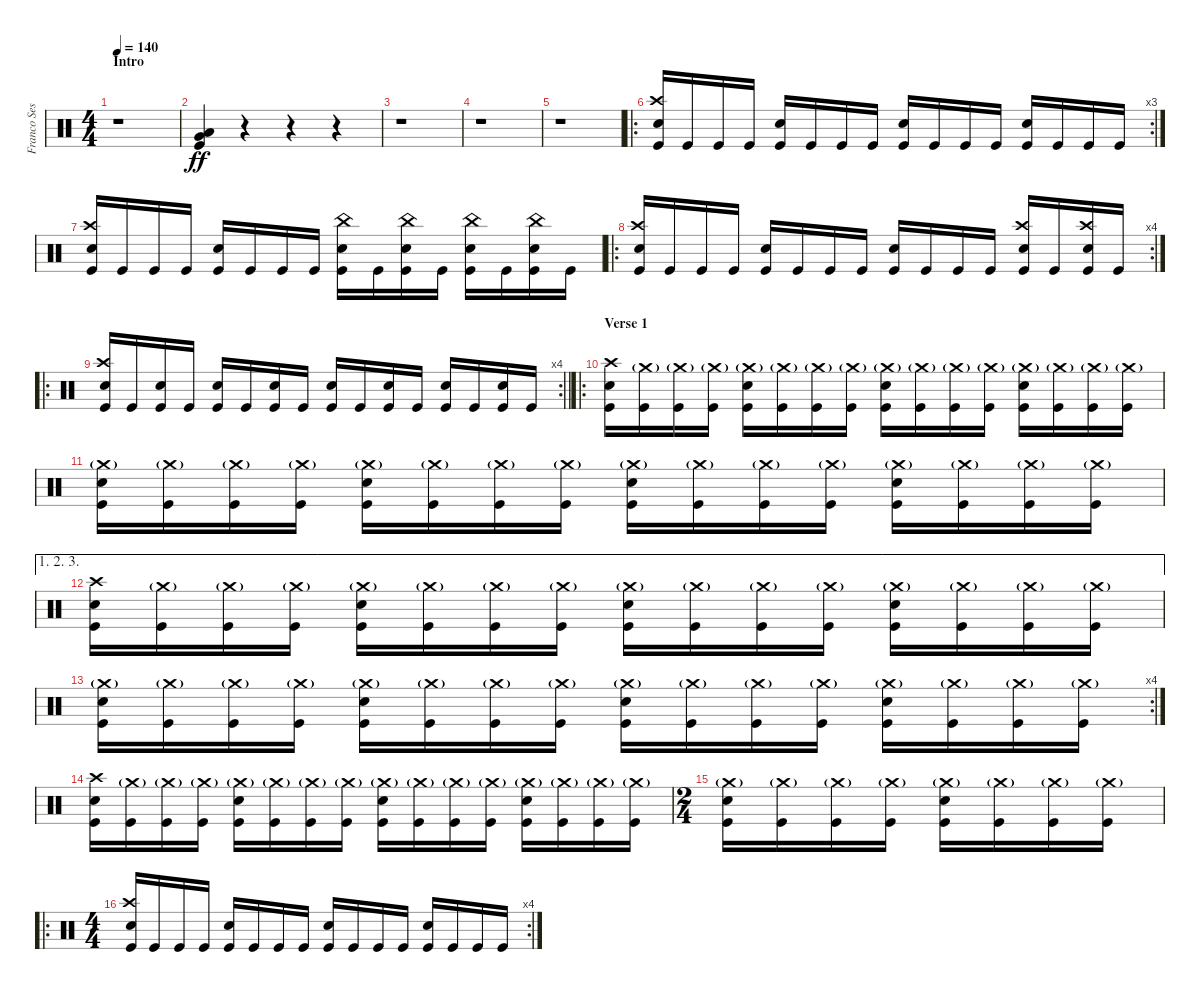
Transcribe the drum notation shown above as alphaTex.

\track ("Franco Sesa" "Franco Ses") {instrument percussion}
\staff {score}
\articulation defaults
\ts (4 4)
\section ("" "Intro")
\tempo 140
\clef neutral
\ks c
r.1{dy ff} |
("Very Low Tom (hit)" "Low Floor Tom (hit)" "Kick (hit)").4 r.4 r.4 r.4 |
r.1 |
r.1 |
r.1 |
\ro
\rc 3
("Crash high (hit)" "Electric Snare (hit)" "Kick (hit)").16 "Kick (hit)".16 "Kick (hit)".16 "Kick (hit)".16 ("Electric Snare (hit)" "Kick (hit)").16 "Kick (hit)".16 "Kick (hit)".16 "Kick (hit)".16 ("Electric Snare (hit)" "Kick (hit)").16 "Kick (hit)".16 "Kick (hit)".16 "Kick (hit)".16 ("Electric Snare (hit)" "Kick (hit)").16 "Kick (hit)".16 "Kick (hit)".16 "Kick (hit)".16 |
("Crash high (hit)" "Electric Snare (hit)" "Kick (hit)").16 "Kick (hit)".16 "Kick (hit)".16 "Kick (hit)".16 ("Electric Snare (hit)" "Kick (hit)").16 "Kick (hit)".16 "Kick (hit)".16 "Kick (hit)".16 ("China (hit)" "Electric Snare (hit)" "Kick (hit)").16 "Kick (hit)".16 ("China (hit)" "Electric Snare (hit)" "Kick (hit)").16 "Kick (hit)".16 ("China (hit)" "Electric Snare (hit)" "Kick (hit)").16 "Kick (hit)".16 ("China (hit)" "Electric Snare (hit)" "Kick (hit)").16 "Kick (hit)".16 |
\ro
\rc 4
("Crash high (hit)" "Electric Snare (hit)" "Kick (hit)").16 "Kick (hit)".16 "Kick (hit)".16 "Kick (hit)".16 ("Electric Snare (hit)" "Kick (hit)").16 "Kick (hit)".16 "Kick (hit)".16 "Kick (hit)".16 ("Electric Snare (hit)" "Kick (hit)").16 "Kick (hit)".16 "Kick (hit)".16 "Kick (hit)".16 ("Crash high (hit)" "Electric Snare (hit)" "Kick (hit)").16 "Kick (hit)".16 ("Crash high (hit)" "Electric Snare (hit)" "Kick (hit)").16 "Kick (hit)".16 |
\ro
\rc 4
\barLineRight lightlight
("Crash high (hit)" "Electric Snare (hit)" "Kick (hit)").16 "Kick (hit)".16 ("Electric Snare (hit)" "Kick (hit)").16 "Kick (hit)".16 ("Electric Snare (hit)" "Kick (hit)").16 "Kick (hit)".16 ("Electric Snare (hit)" "Kick (hit)").16 "Kick (hit)".16 ("Electric Snare (hit)" "Kick (hit)").16 "Kick (hit)".16 ("Electric Snare (hit)" "Kick (hit)").16 "Kick (hit)".16 ("Electric Snare (hit)" "Kick (hit)").16 "Kick (hit)".16 ("Electric Snare (hit)" "Kick (hit)").16 "Kick (hit)".16 |
\ro
\section ("" "Verse 1")
("Crash high (hit)" "Electric Snare (hit)" "Kick (hit)").16 ("Crash medium (hit)"{g} "Kick (hit)").16 ("Crash medium (hit)"{g} "Kick (hit)").16 ("Crash medium (hit)"{g} "Kick (hit)").16 ("Crash medium (hit)"{g} "Electric Snare (hit)" "Kick (hit)").16 ("Crash medium (hit)"{g} "Kick (hit)").16 ("Crash medium (hit)"{g} "Kick (hit)").16 ("Crash medium (hit)"{g} "Kick (hit)").16 ("Crash medium (hit)"{g} "Electric Snare (hit)" "Kick (hit)").16 ("Crash medium (hit)"{g} "Kick (hit)").16 ("Crash medium (hit)"{g} "Kick (hit)").16 ("Crash medium (hit)"{g} "Kick (hit)").16 ("Crash medium (hit)"{g} "Electric Snare (hit)" "Kick (hit)").16 ("Crash medium (hit)"{g} "Kick (hit)").16 ("Crash medium (hit)"{g} "Kick (hit)").16 ("Crash medium (hit)"{g} "Kick (hit)").16 |
("Crash medium (hit)"{g} "Electric Snare (hit)" "Kick (hit)").16 ("Crash medium (hit)"{g} "Kick (hit)").16 ("Crash medium (hit)"{g} "Kick (hit)").16 ("Crash medium (hit)"{g} "Kick (hit)").16 ("Crash medium (hit)"{g} "Electric Snare (hit)" "Kick (hit)").16 ("Crash medium (hit)"{g} "Kick (hit)").16 ("Crash medium (hit)"{g} "Kick (hit)").16 ("Crash medium (hit)"{g} "Kick (hit)").16 ("Crash medium (hit)"{g} "Electric Snare (hit)" "Kick (hit)").16 ("Crash medium (hit)"{g} "Kick (hit)").16 ("Crash medium (hit)"{g} "Kick (hit)").16 ("Crash medium (hit)"{g} "Kick (hit)").16 ("Crash medium (hit)"{g} "Electric Snare (hit)" "Kick (hit)").16 ("Crash medium (hit)"{g} "Kick (hit)").16 ("Crash medium (hit)"{g} "Kick (hit)").16 ("Crash medium (hit)"{g} "Kick (hit)").16 |
\ae (1 2 3)
("Crash high (hit)" "Electric Snare (hit)" "Kick (hit)").16 ("Crash medium (hit)"{g} "Kick (hit)").16 ("Crash medium (hit)"{g} "Kick (hit)").16 ("Crash medium (hit)"{g} "Kick (hit)").16 ("Crash medium (hit)"{g} "Electric Snare (hit)" "Kick (hit)").16 ("Crash medium (hit)"{g} "Kick (hit)").16 ("Crash medium (hit)"{g} "Kick (hit)").16 ("Crash medium (hit)"{g} "Kick (hit)").16 ("Crash medium (hit)"{g} "Electric Snare (hit)" "Kick (hit)").16 ("Crash medium (hit)"{g} "Kick (hit)").16 ("Crash medium (hit)"{g} "Kick (hit)").16 ("Crash medium (hit)"{g} "Kick (hit)").16 ("Crash medium (hit)"{g} "Electric Snare (hit)" "Kick (hit)").16 ("Crash medium (hit)"{g} "Kick (hit)").16 ("Crash medium (hit)"{g} "Kick (hit)").16 ("Crash medium (hit)"{g} "Kick (hit)").16 |
\rc 4
("Crash medium (hit)"{g} "Electric Snare (hit)" "Kick (hit)").16 ("Crash medium (hit)"{g} "Kick (hit)").16 ("Crash medium (hit)"{g} "Kick (hit)").16 ("Crash medium (hit)"{g} "Kick (hit)").16 ("Crash medium (hit)"{g} "Electric Snare (hit)" "Kick (hit)").16 ("Crash medium (hit)"{g} "Kick (hit)").16 ("Crash medium (hit)"{g} "Kick (hit)").16 ("Crash medium (hit)"{g} "Kick (hit)").16 ("Crash medium (hit)"{g} "Electric Snare (hit)" "Kick (hit)").16 ("Crash medium (hit)"{g} "Kick (hit)").16 ("Crash medium (hit)"{g} "Kick (hit)").16 ("Crash medium (hit)"{g} "Kick (hit)").16 ("Crash medium (hit)"{g} "Electric Snare (hit)" "Kick (hit)").16 ("Crash medium (hit)"{g} "Kick (hit)").16 ("Crash medium (hit)"{g} "Kick (hit)").16 ("Crash medium (hit)"{g} "Kick (hit)").16 |
("Crash high (hit)" "Electric Snare (hit)" "Kick (hit)").16 ("Crash medium (hit)"{g} "Kick (hit)").16 ("Crash medium (hit)"{g} "Kick (hit)").16 ("Crash medium (hit)"{g} "Kick (hit)").16 ("Crash medium (hit)"{g} "Electric Snare (hit)" "Kick (hit)").16 ("Crash medium (hit)"{g} "Kick (hit)").16 ("Crash medium (hit)"{g} "Kick (hit)").16 ("Crash medium (hit)"{g} "Kick (hit)").16 ("Crash medium (hit)"{g} "Electric Snare (hit)" "Kick (hit)").16 ("Crash medium (hit)"{g} "Kick (hit)").16 ("Crash medium (hit)"{g} "Kick (hit)").16 ("Crash medium (hit)"{g} "Kick (hit)").16 ("Crash medium (hit)"{g} "Electric Snare (hit)" "Kick (hit)").16 ("Crash medium (hit)"{g} "Kick (hit)").16 ("Crash medium (hit)"{g} "Kick (hit)").16 ("Crash medium (hit)"{g} "Kick (hit)").16 |
\ts (2 4)
("Crash medium (hit)"{g} "Electric Snare (hit)" "Kick (hit)").16 ("Crash medium (hit)"{g} "Kick (hit)").16 ("Crash medium (hit)"{g} "Kick (hit)").16 ("Crash medium (hit)"{g} "Kick (hit)").16 ("Crash medium (hit)"{g} "Electric Snare (hit)" "Kick (hit)").16 ("Crash medium (hit)"{g} "Kick (hit)").16 ("Crash medium (hit)"{g} "Kick (hit)").16 ("Crash medium (hit)"{g} "Kick (hit)").16 |
\ro
\rc 4
\ts (4 4)
("Crash high (hit)" "Electric Snare (hit)" "Kick (hit)").16 "Kick (hit)".16 "Kick (hit)".16 "Kick (hit)".16 ("Electric Snare (hit)" "Kick (hit)").16 "Kick (hit)".16 "Kick (hit)".16 "Kick (hit)".16 ("Electric Snare (hit)" "Kick (hit)").16 "Kick (hit)".16 "Kick (hit)".16 "Kick (hit)".16 ("Electric Snare (hit)" "Kick (hit)").16 "Kick (hit)".16 "Kick (hit)".16 "Kick (hit)".16
